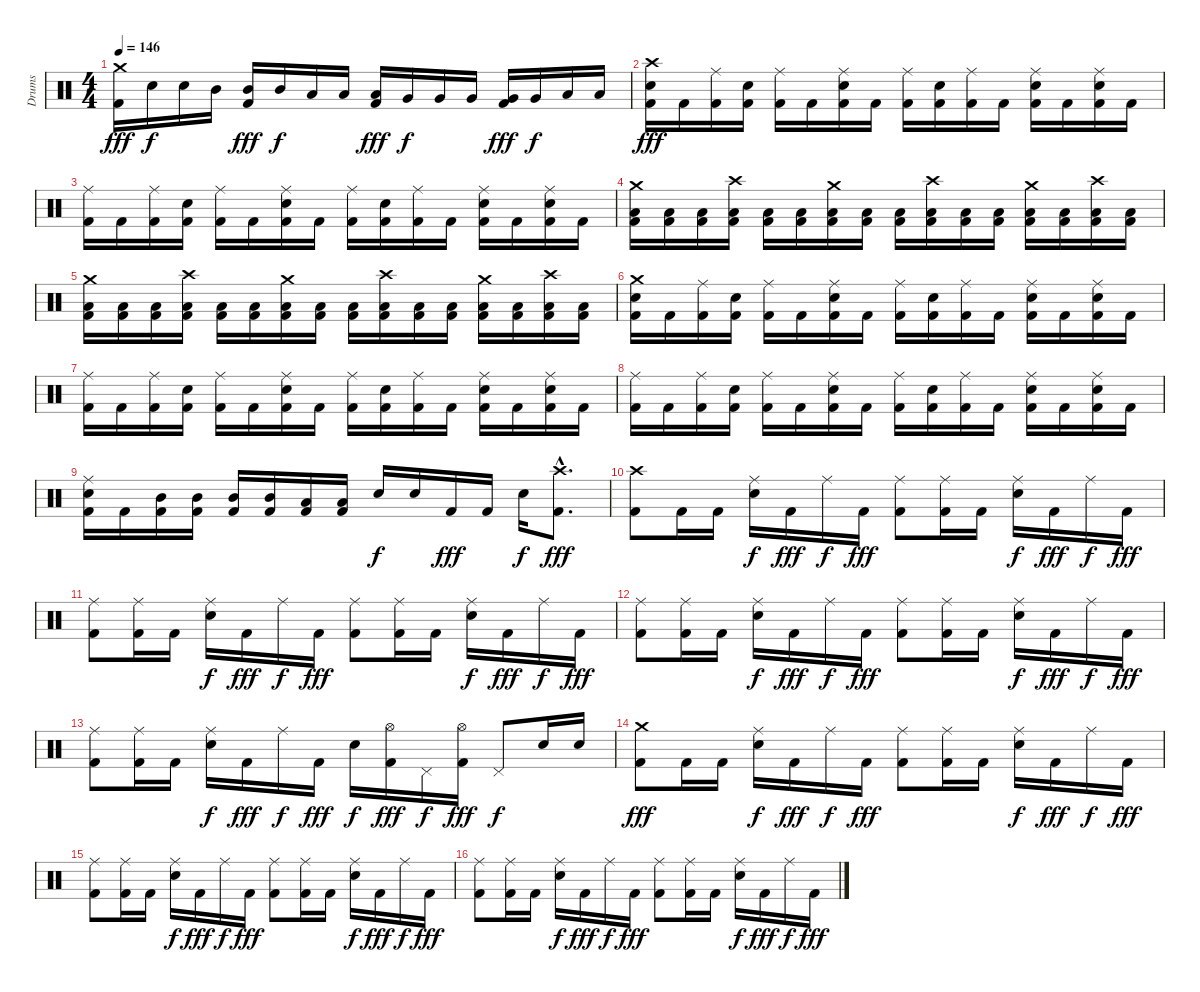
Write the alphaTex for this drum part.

\track ("Drums" "Drums") {instrument percussion}
\staff {score}
\articulation defaults
\ts (4 4)
\tempo 146
\clef neutral
\ks c
("Crash medium (hit)" "Kick (hit) 2").16{dy fff} "Snare (hit) 2".16{dy f} "Snare (hit) 2".16 "Mid Tom (hit)".16 ("Mid Tom (hit)" "Kick (hit) 2").16{dy fff} "Mid Tom (hit)".16{dy f} "Low Tom (hit)".16 "Low Tom (hit)".16 ("Low Tom (hit)" "Kick (hit) 2").16{dy fff} "Very Low Tom (hit)".16{dy f} "Very Low Tom (hit)".16 "Very Low Tom (hit)".16 ("Very Low Tom (hit)" "Kick (hit) 2").16{dy fff} "Very Low Tom (hit)".16{dy f} "Low Floor Tom (hit)".16 "Low Floor Tom (hit)".16 |
("Crash high (hit)" "Snare (hit) 2" "Kick (hit) 2").16{dy fff} "Kick (hit) 2".16 ("Ride (middle)" "Kick (hit) 2").16 ("Snare (hit) 2" "Kick (hit) 2").16 ("Ride (middle)" "Kick (hit) 2").16 "Kick (hit) 2".16 ("Ride (middle)" "Snare (hit) 2" "Kick (hit) 2").16 "Kick (hit) 2".16 ("Ride (middle)" "Kick (hit) 2").16 ("Snare (hit) 2" "Kick (hit) 2").16 ("Ride (middle)" "Kick (hit) 2").16 "Kick (hit) 2".16 ("Ride (middle)" "Snare (hit) 2" "Kick (hit) 2").16 "Kick (hit) 2".16 ("Ride (middle)" "Snare (hit) 2" "Kick (hit) 2").16 "Kick (hit) 2".16 |
("Ride (middle)" "Kick (hit) 2").16 "Kick (hit) 2".16 ("Ride (middle)" "Kick (hit) 2").16 ("Snare (hit) 2" "Kick (hit) 2").16 ("Ride (middle)" "Kick (hit) 2").16 "Kick (hit) 2".16 ("Ride (middle)" "Snare (hit) 2" "Kick (hit) 2").16 "Kick (hit) 2".16 ("Ride (middle)" "Kick (hit) 2").16 ("Snare (hit) 2" "Kick (hit) 2").16 ("Ride (middle)" "Kick (hit) 2").16 "Kick (hit) 2".16 ("Ride (middle)" "Snare (hit) 2" "Kick (hit) 2").16 "Kick (hit) 2".16 ("Ride (middle)" "Snare (hit) 2" "Kick (hit) 2").16 "Kick (hit) 2".16 |
("Crash medium (hit)" "Low Floor Tom (hit)" "Kick (hit) 2").16 ("Low Floor Tom (hit)" "Kick (hit) 2").16 ("Low Floor Tom (hit)" "Kick (hit) 2").16 ("Crash high (hit)" "Low Floor Tom (hit)" "Kick (hit) 2").16 ("Low Floor Tom (hit)" "Kick (hit) 2").16 ("Low Floor Tom (hit)" "Kick (hit) 2").16 ("Crash medium (hit)" "Low Floor Tom (hit)" "Kick (hit) 2").16 ("Low Floor Tom (hit)" "Kick (hit) 2").16 ("Low Floor Tom (hit)" "Kick (hit) 2").16 ("Crash high (hit)" "Low Floor Tom (hit)" "Kick (hit) 2").16 ("Low Floor Tom (hit)" "Kick (hit) 2").16 ("Low Floor Tom (hit)" "Kick (hit) 2").16 ("Crash medium (hit)" "Low Floor Tom (hit)" "Kick (hit) 2").16 ("Low Floor Tom (hit)" "Kick (hit) 2").16 ("Crash high (hit)" "Low Floor Tom (hit)" "Kick (hit) 2").16 ("Low Floor Tom (hit)" "Kick (hit) 2").16 |
("Crash medium (hit)" "Low Floor Tom (hit)" "Kick (hit) 2").16 ("Low Floor Tom (hit)" "Kick (hit) 2").16 ("Low Floor Tom (hit)" "Kick (hit) 2").16 ("Crash high (hit)" "Low Floor Tom (hit)" "Kick (hit) 2").16 ("Low Floor Tom (hit)" "Kick (hit) 2").16 ("Low Floor Tom (hit)" "Kick (hit) 2").16 ("Crash medium (hit)" "Low Floor Tom (hit)" "Kick (hit) 2").16 ("Low Floor Tom (hit)" "Kick (hit) 2").16 ("Low Floor Tom (hit)" "Kick (hit) 2").16 ("Crash high (hit)" "Low Floor Tom (hit)" "Kick (hit) 2").16 ("Low Floor Tom (hit)" "Kick (hit) 2").16 ("Low Floor Tom (hit)" "Kick (hit) 2").16 ("Crash medium (hit)" "Low Floor Tom (hit)" "Kick (hit) 2").16 ("Low Floor Tom (hit)" "Kick (hit) 2").16 ("Crash high (hit)" "Low Floor Tom (hit)" "Kick (hit) 2").16 ("Low Floor Tom (hit)" "Kick (hit) 2").16 |
("Crash medium (hit)" "Snare (hit) 2" "Kick (hit) 2").16 "Kick (hit) 2".16 ("Ride (middle)" "Kick (hit) 2").16 ("Snare (hit) 2" "Kick (hit) 2").16 ("Ride (middle)" "Kick (hit) 2").16 "Kick (hit) 2".16 ("Ride (middle)" "Snare (hit) 2" "Kick (hit) 2").16 "Kick (hit) 2".16 ("Ride (middle)" "Kick (hit) 2").16 ("Snare (hit) 2" "Kick (hit) 2").16 ("Ride (middle)" "Kick (hit) 2").16 "Kick (hit) 2".16 ("Ride (middle)" "Snare (hit) 2" "Kick (hit) 2").16 "Kick (hit) 2".16 ("Ride (middle)" "Snare (hit) 2" "Kick (hit) 2").16 "Kick (hit) 2".16 |
("Ride (middle)" "Kick (hit) 2").16 "Kick (hit) 2".16 ("Ride (middle)" "Kick (hit) 2").16 ("Snare (hit) 2" "Kick (hit) 2").16 ("Ride (middle)" "Kick (hit) 2").16 "Kick (hit) 2".16 ("Ride (middle)" "Snare (hit) 2" "Kick (hit) 2").16 "Kick (hit) 2".16 ("Ride (middle)" "Kick (hit) 2").16 ("Snare (hit) 2" "Kick (hit) 2").16 ("Ride (middle)" "Kick (hit) 2").16 "Kick (hit) 2".16 ("Ride (middle)" "Snare (hit) 2" "Kick (hit) 2").16 "Kick (hit) 2".16 ("Ride (middle)" "Snare (hit) 2" "Kick (hit) 2").16 "Kick (hit) 2".16 |
("Ride (middle)" "Kick (hit) 2").16 "Kick (hit) 2".16 ("Ride (middle)" "Kick (hit) 2").16 ("Snare (hit) 2" "Kick (hit) 2").16 ("Ride (middle)" "Kick (hit) 2").16 "Kick (hit) 2".16 ("Ride (middle)" "Snare (hit) 2" "Kick (hit) 2").16 "Kick (hit) 2".16 ("Ride (middle)" "Kick (hit) 2").16 ("Snare (hit) 2" "Kick (hit) 2").16 ("Ride (middle)" "Kick (hit) 2").16 "Kick (hit) 2".16 ("Ride (middle)" "Snare (hit) 2" "Kick (hit) 2").16 "Kick (hit) 2".16 ("Ride (middle)" "Snare (hit) 2" "Kick (hit) 2").16 "Kick (hit) 2".16 |
("Ride (middle)" "Snare (hit) 2" "Kick (hit) 2").16 "Kick (hit) 2".16 ("Mid Tom (hit)" "Kick (hit) 2").16 ("Mid Tom (hit)" "Kick (hit) 2").16 ("Mid Tom (hit)" "Kick (hit) 2").16 ("Mid Tom (hit)" "Kick (hit) 2").16 ("Low Tom (hit)" "Kick (hit) 2").16 ("Low Tom (hit)" "Kick (hit) 2").16 "Snare (hit) 2".16{dy f} "Snare (hit) 2".16 "Kick (hit) 2".16{dy fff} "Kick (hit) 2".16 "Snare (hit) 2".16{dy f} ("Crash high (hit)"{hac} "Kick (hit) 2"{hac}).8{d dy fff} |
("Crash high (hit)" "Kick (hit) 2").8 "Kick (hit) 2".16 "Kick (hit) 2".16 ("Ride (middle)" "Snare (hit) 2").16{dy f} "Kick (hit) 2".16{dy fff} "Ride (middle)".16{dy f} "Kick (hit) 2".16{dy fff} ("Ride (middle)" "Kick (hit) 2").8 ("Ride (middle)" "Kick (hit) 2").16 "Kick (hit) 2".16 ("Ride (middle)" "Snare (hit) 2").16{dy f} "Kick (hit) 2".16{dy fff} "Ride (middle)".16{dy f} "Kick (hit) 2".16{dy fff} |
("Ride (middle)" "Kick (hit) 2").8 ("Ride (middle)" "Kick (hit) 2").16 "Kick (hit) 2".16 ("Ride (middle)" "Snare (hit) 2").16{dy f} "Kick (hit) 2".16{dy fff} "Ride (middle)".16{dy f} "Kick (hit) 2".16{dy fff} ("Ride (middle)" "Kick (hit) 2").8 ("Ride (middle)" "Kick (hit) 2").16 "Kick (hit) 2".16 ("Ride (middle)" "Snare (hit) 2").16{dy f} "Kick (hit) 2".16{dy fff} "Ride (middle)".16{dy f} "Kick (hit) 2".16{dy fff} |
("Ride (middle)" "Kick (hit) 2").8 ("Ride (middle)" "Kick (hit) 2").16 "Kick (hit) 2".16 ("Ride (middle)" "Snare (hit) 2").16{dy f} "Kick (hit) 2".16{dy fff} "Ride (middle)".16{dy f} "Kick (hit) 2".16{dy fff} ("Ride (middle)" "Kick (hit) 2").8 ("Ride (middle)" "Kick (hit) 2").16 "Kick (hit) 2".16 ("Ride (middle)" "Snare (hit) 2").16{dy f} "Kick (hit) 2".16{dy fff} "Ride (middle)".16{dy f} "Kick (hit) 2".16{dy fff} |
("Ride (middle)" "Kick (hit) 2").8 ("Ride (middle)" "Kick (hit) 2").16 "Kick (hit) 2".16 ("Ride (middle)" "Snare (hit) 2").16{dy f} "Kick (hit) 2".16{dy fff} "Ride (middle)".16{dy f} "Kick (hit) 2".16{dy fff} "Snare (hit) 2".16{dy f} ("Hi-Hat (open)" "Kick (hit) 2").16{dy fff} "Pedal Hi-Hat (hit)".16{dy f} ("Hi-Hat (open)" "Kick (hit) 2").16{dy fff} "Pedal Hi-Hat (hit)".8{dy f} "Snare (hit) 2".16 "Snare (hit) 2".16 |
("Crash medium (hit)" "Kick (hit) 2").8{dy fff} "Kick (hit) 2".16 "Kick (hit) 2".16 ("Ride (middle)" "Snare (hit) 2").16{dy f} "Kick (hit) 2".16{dy fff} "Ride (middle)".16{dy f} "Kick (hit) 2".16{dy fff} ("Ride (middle)" "Kick (hit) 2").8 ("Ride (middle)" "Kick (hit) 2").16 "Kick (hit) 2".16 ("Ride (middle)" "Snare (hit) 2").16{dy f} "Kick (hit) 2".16{dy fff} "Ride (middle)".16{dy f} "Kick (hit) 2".16{dy fff} |
("Ride (middle)" "Kick (hit) 2").8 ("Ride (middle)" "Kick (hit) 2").16 "Kick (hit) 2".16 ("Ride (middle)" "Snare (hit) 2").16{dy f} "Kick (hit) 2".16{dy fff} "Ride (middle)".16{dy f} "Kick (hit) 2".16{dy fff} ("Ride (middle)" "Kick (hit) 2").8 ("Ride (middle)" "Kick (hit) 2").16 "Kick (hit) 2".16 ("Ride (middle)" "Snare (hit) 2").16{dy f} "Kick (hit) 2".16{dy fff} "Ride (middle)".16{dy f} "Kick (hit) 2".16{dy fff} |
("Ride (middle)" "Kick (hit) 2").8 ("Ride (middle)" "Kick (hit) 2").16 "Kick (hit) 2".16 ("Ride (middle)" "Snare (hit) 2").16{dy f} "Kick (hit) 2".16{dy fff} "Ride (middle)".16{dy f} "Kick (hit) 2".16{dy fff} ("Ride (middle)" "Kick (hit) 2").8 ("Ride (middle)" "Kick (hit) 2").16 "Kick (hit) 2".16 ("Ride (middle)" "Snare (hit) 2").16{dy f} "Kick (hit) 2".16{dy fff} "Ride (middle)".16{dy f} "Kick (hit) 2".16{dy fff}
